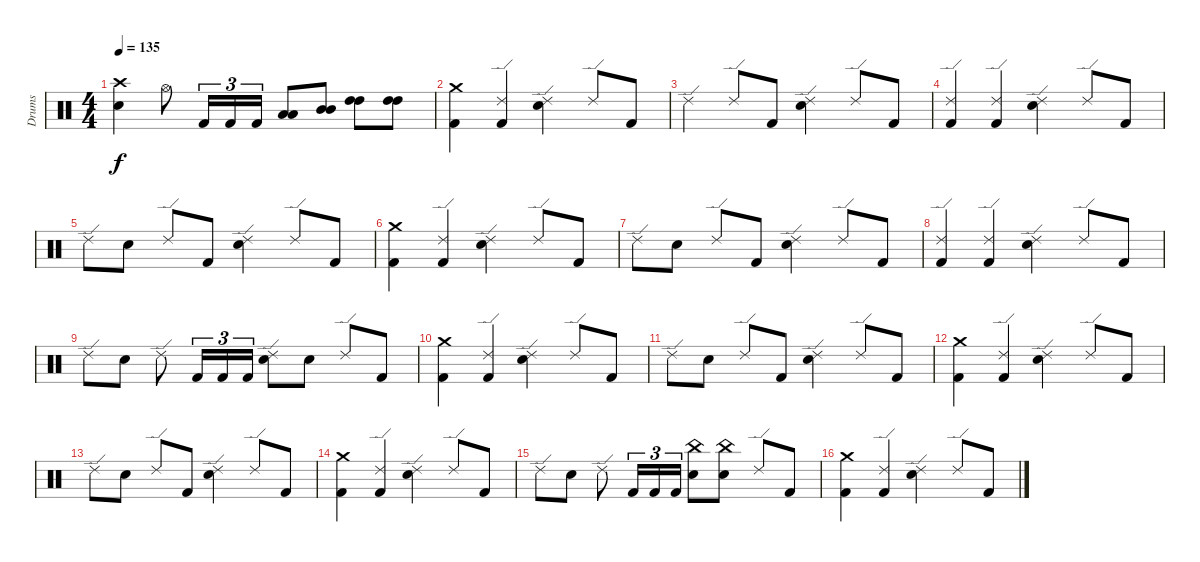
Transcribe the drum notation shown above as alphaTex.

\track ("Drums" "Drums") {instrument percussion}
\staff {score}
\articulation defaults
\ts (4 4)
\tempo 135
\clef neutral
\ks c
("Snare (hit) 2" "Crash high (hit)").4{dy f} "Hi-Hat (open)".8 "Kick (hit) 2".16{tu (3 2)} "Kick (hit) 2".16{tu (3 2)} "Kick (hit) 2".16{tu (3 2)} ("Low Tom (hit)" "Low Tom (hit)").8 ("Mid Tom (hit)" "Mid Tom (hit)").8 ("High Tom (hit)" "High Tom (hit)").8 ("High Tom (hit)" "High Tom (hit)").8 |
("Kick (hit) 2" "Crash medium (hit)").4 ("Kick (hit) 2" "Ride (edge) 2").4 ("Snare (hit) 2" "Ride (edge) 2").4 "Ride (edge) 2".8 "Kick (hit) 2".8 |
"Ride (edge) 2".4 "Ride (edge) 2".8 "Kick (hit) 2".8 ("Snare (hit) 2" "Ride (edge) 2").4 "Ride (edge) 2".8 "Kick (hit) 2".8 |
("Kick (hit) 2" "Ride (edge) 2").4 ("Kick (hit) 2" "Ride (edge) 2").4 ("Snare (hit) 2" "Ride (edge) 2").4 "Ride (edge) 2".8 "Kick (hit) 2".8 |
"Ride (edge) 2".8 "Snare (hit) 2".8 "Ride (edge) 2".8 "Kick (hit) 2".8 ("Snare (hit) 2" "Ride (edge) 2").4 "Ride (edge) 2".8 "Kick (hit) 2".8 |
("Kick (hit) 2" "Crash medium (hit)").4 ("Kick (hit) 2" "Ride (edge) 2").4 ("Snare (hit) 2" "Ride (edge) 2").4 "Ride (edge) 2".8 "Kick (hit) 2".8 |
"Ride (edge) 2".8 "Snare (hit) 2".8 "Ride (edge) 2".8 "Kick (hit) 2".8 ("Snare (hit) 2" "Ride (edge) 2").4 "Ride (edge) 2".8 "Kick (hit) 2".8 |
("Kick (hit) 2" "Ride (edge) 2").4 ("Kick (hit) 2" "Ride (edge) 2").4 ("Snare (hit) 2" "Ride (edge) 2").4 "Ride (edge) 2".8 "Kick (hit) 2".8 |
"Ride (edge) 2".8 "Snare (hit) 2".8 "Ride (edge) 2".8 "Kick (hit) 2".16{tu (3 2)} "Kick (hit) 2".16{tu (3 2)} "Kick (hit) 2".16{tu (3 2)} ("Snare (hit) 2" "Ride (edge) 2").8 "Snare (hit) 2".8 "Ride (edge) 2".8 "Kick (hit) 2".8 |
("Kick (hit) 2" "Crash medium (hit)").4 ("Kick (hit) 2" "Ride (edge) 2").4 ("Snare (hit) 2" "Ride (edge) 2").4 "Ride (edge) 2".8 "Kick (hit) 2".8 |
"Ride (edge) 2".8 "Snare (hit) 2".8 "Ride (edge) 2".8 "Kick (hit) 2".8 ("Snare (hit) 2" "Ride (edge) 2").4 "Ride (edge) 2".8 "Kick (hit) 2".8 |
("Kick (hit) 2" "Crash medium (hit)").4 ("Kick (hit) 2" "Ride (edge) 2").4 ("Snare (hit) 2" "Ride (edge) 2").4 "Ride (edge) 2".8 "Kick (hit) 2".8 |
"Ride (edge) 2".8 "Snare (hit) 2".8 "Ride (edge) 2".8 "Kick (hit) 2".8 ("Snare (hit) 2" "Ride (edge) 2").4 "Ride (edge) 2".8 "Kick (hit) 2".8 |
("Kick (hit) 2" "Crash medium (hit)").4 ("Kick (hit) 2" "Ride (edge) 2").4 ("Snare (hit) 2" "Ride (edge) 2").4 "Ride (edge) 2".8 "Kick (hit) 2".8 |
"Ride (edge) 2".8 "Snare (hit) 2".8 "Ride (edge) 2".8 "Kick (hit) 2".16{tu (3 2)} "Kick (hit) 2".16{tu (3 2)} "Kick (hit) 2".16{tu (3 2)} ("Snare (hit) 2" "China (hit)").8 ("Snare (hit) 2" "China (hit)").8 "Ride (edge) 2".8 "Kick (hit) 2".8 |
("Kick (hit) 2" "Crash medium (hit)").4 ("Kick (hit) 2" "Ride (edge) 2").4 ("Snare (hit) 2" "Ride (edge) 2").4 "Ride (edge) 2".8 "Kick (hit) 2".8
